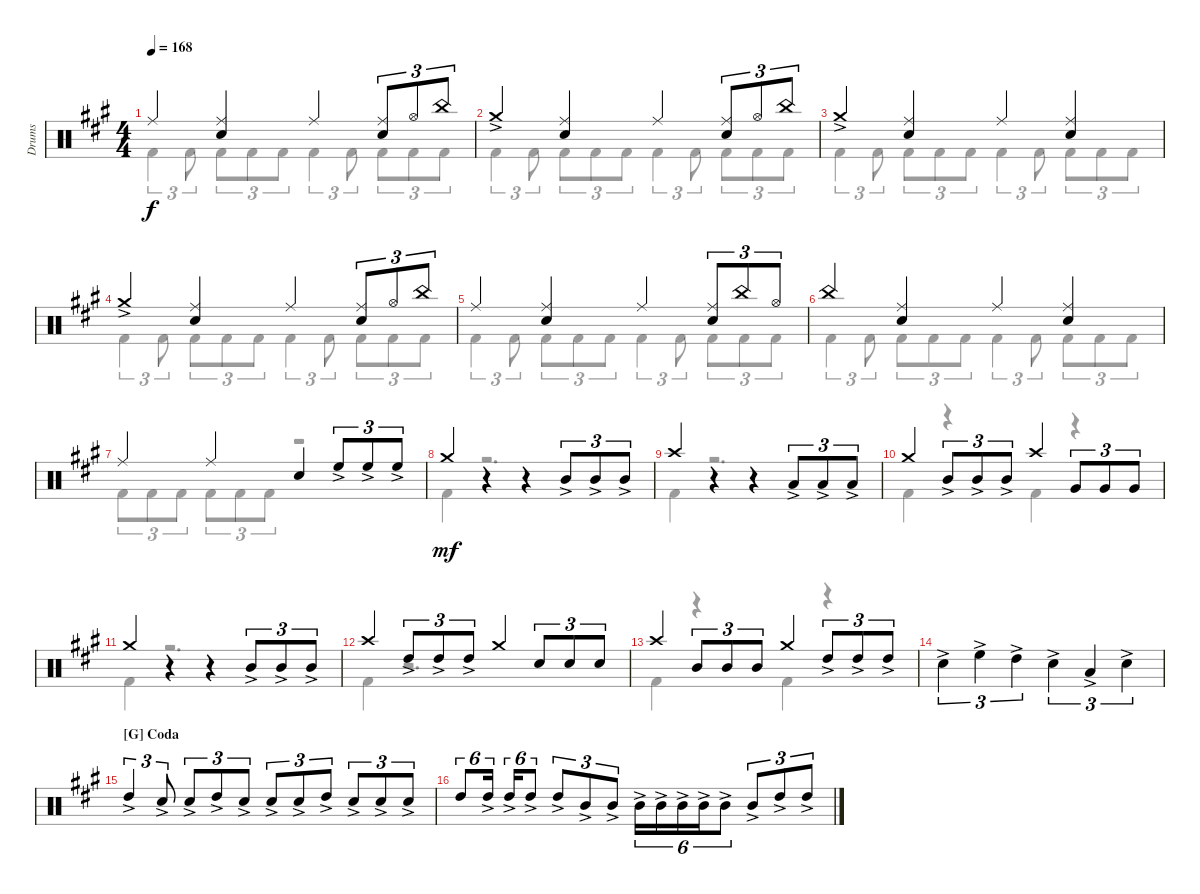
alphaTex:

\defaultSystemsLayout 4
\bracketExtendMode groupsimilarinstruments
\otherSystemsTrackNameOrientation horizontal
\track ("Drums" "Drums") {instrument percussion}
\staff {score}
\articulation defaults
\voice
\ts (4 4)
\tempo 168
\clef neutral
\ks a "Ride (middle)"{acc forcenatural}.4{dy f beam Up}
("Ride (middle)"{acc forcenatural} "Snare (hit) 2"{acc forcenatural}).4{beam Up} "Ride (middle)"{acc forcenatural}.4{beam Up} ("Ride (middle)"{acc forcenatural} "Snare (hit) 2"{acc forcenatural}).8{tu (3 2) beam Up} "Hi-Hat (open)"{acc forcenatural}.8{tu (3 2) beam Up} "China (hit)"{acc forcenatural}.8{tu (3 2) beam Up} |
"Crash medium (hit)"{ac acc forcenatural}.4{beam Up} ("Ride (middle)"{acc forcenatural} "Snare (hit) 2"{acc forcenatural}).4{beam Up} "Ride (middle)"{acc forcenatural}.4{beam Up} ("Ride (middle)"{acc forcenatural} "Snare (hit) 2"{acc forcenatural}).8{tu (3 2) beam Up} "Hi-Hat (open)"{acc forcenatural}.8{tu (3 2) beam Up} "China (hit)"{acc forcenatural}.8{tu (3 2) beam Up} |
"Crash medium (hit)"{ac acc forcenatural}.4{beam Up} ("Ride (middle)"{acc forcenatural} "Snare (hit) 2"{acc forcenatural}).4{beam Up} "Ride (middle)"{acc forcenatural}.4{beam Up} ("Ride (middle)"{acc forcenatural} "Snare (hit) 2"{acc forcenatural}).4{beam Up} |
"Crash medium (hit)"{ac acc forcenatural}.4{beam Up} ("Ride (middle)"{acc forcenatural} "Snare (hit) 2"{acc forcenatural}).4{beam Up} "Ride (middle)"{acc forcenatural}.4{beam Up} ("Ride (middle)"{acc forcenatural} "Snare (hit) 2"{acc forcenatural}).8{tu (3 2) beam Up} "Hi-Hat (open)"{acc forcenatural}.8{tu (3 2) beam Up} "China (hit)"{acc forcenatural}.8{tu (3 2) beam Up} |
"Ride (middle)"{acc forcenatural}.4{beam Up} ("Ride (middle)"{acc forcenatural} "Snare (hit) 2"{acc forcenatural}).4{beam Up} "Ride (middle)"{acc forcenatural}.4{beam Up} ("Ride (middle)"{acc forcenatural} "Snare (hit) 2"{acc forcenatural}).8{tu (3 2) beam Up} "China (hit)"{acc forcenatural}.8{tu (3 2) beam Up} "Hi-Hat (open)"{acc forcenatural}.8{tu (3 2) beam Up} |
"China (hit)"{acc forcenatural}.4{beam Up} ("Ride (middle)"{acc forcenatural} "Snare (hit) 2"{acc forcenatural}).4{beam Up} "Ride (middle)"{acc forcenatural}.4{beam Up} ("Ride (middle)"{acc forcenatural} "Snare (hit) 2"{acc forcenatural}).4{beam Up} |
"Ride (middle)"{acc forcenatural}.4{beam Up} "Ride (middle)"{acc forcenatural}.4{beam Up} "Snare (hit) 2"{acc forcenatural}.4{beam Up} "High Floor Tom (hit)"{ac acc forcenatural}.8{tu (3 2) beam Up} "High Floor Tom (hit)"{ac acc forcenatural}.8{tu (3 2) beam Up} "High Floor Tom (hit)"{ac acc forcenatural}.8{tu (3 2) beam Up} |
"Crash medium (hit)"{acc forcenatural}.4{dy mf beam Up} r.4{beam Up} r.4{beam Up} "Mid Tom (hit)"{ac acc forcenatural}.8{tu (3 2) beam Up} "Mid Tom (hit)"{ac acc forcenatural}.8{tu (3 2) beam Up} "Mid Tom (hit)"{ac acc forcenatural}.8{tu (3 2) beam Up} |
"Crash high (hit)"{acc forcenatural}.4{beam Up} r.4{beam Up} r.4{beam Up} "Low Tom (hit)"{ac acc forcenatural}.8{tu (3 2) beam Up} "Low Tom (hit)"{ac acc forcenatural}.8{tu (3 2) beam Up} "Low Tom (hit)"{ac acc forcenatural}.8{tu (3 2) beam Up} |
"Crash medium (hit)"{acc forcenatural}.4{beam Up} "Mid Tom (hit)"{ac acc forcenatural}.8{tu (3 2) beam Up} "Mid Tom (hit)"{ac acc forcenatural}.8{tu (3 2) beam Up} "Mid Tom (hit)"{ac acc forcenatural}.8{tu (3 2) beam Up} "Crash high (hit)"{acc forcenatural}.4{beam Up} "Very Low Tom (hit)"{acc forcenatural}.8{tu (3 2) beam Up} "Very Low Tom (hit)"{acc forcenatural}.8{tu (3 2) beam Up} "Very Low Tom (hit)"{acc forcenatural}.8{tu (3 2) beam Up} |
"Crash medium (hit)"{acc forcenatural}.4{beam Up} r.4{beam Up} r.4{beam Up} "Mid Tom (hit)"{ac acc forcenatural}.8{tu (3 2) beam Up} "Mid Tom (hit)"{ac acc forcenatural}.8{tu (3 2) beam Up} "Mid Tom (hit)"{ac acc forcenatural}.8{tu (3 2) beam Up} |
"Crash high (hit)"{acc forcenatural}.4{beam Up} "High Tom (hit)"{ac acc forcenatural}.8{tu (3 2) beam Up} "High Tom (hit)"{ac acc forcenatural}.8{tu (3 2) beam Up} "High Tom (hit)"{ac acc forcenatural}.8{tu (3 2) beam Up} "Crash medium (hit)"{acc forcenatural}.4{beam Up} "Snare (hit) 2"{acc forcenatural}.8{tu (3 2) beam Up} "Snare (hit) 2"{acc forcenatural}.8{tu (3 2) beam Up} "Snare (hit) 2"{acc forcenatural}.8{tu (3 2) beam Up} |
"Crash high (hit)"{acc forcenatural}.4{beam Up} "Mid Tom (hit)"{acc forcenatural}.8{tu (3 2) beam Up} "Mid Tom (hit)"{acc forcenatural}.8{tu (3 2) beam Up} "Mid Tom (hit)"{acc forcenatural}.8{tu (3 2) beam Up} "Crash medium (hit)"{acc forcenatural}.4{beam Up} "High Tom (hit)"{ac acc forcenatural}.8{tu (3 2) beam Up} "High Tom (hit)"{ac acc forcenatural}.8{tu (3 2) beam Up} "High Tom (hit)"{ac acc forcenatural}.8{tu (3 2) beam Up} |
"Snare (hit) 2"{ac acc forcenatural}.4{tu (3 2) beam Down} "High Floor Tom (hit)"{ac acc forcenatural}.4{tu (3 2) beam Down} "High Tom (hit)"{ac acc forcenatural}.4{tu (3 2) beam Down} "Snare (hit) 2"{ac acc forcenatural}.4{tu (3 2) beam Down} "Low Tom (hit)"{ac acc forcenatural}.4{tu (3 2) beam Up} "Snare (hit) 2"{ac acc forcenatural}.4{tu (3 2) beam Down} |
\section ("G" "Coda")
"High Tom (hit)"{ac acc forcenatural}.4{tu (3 2) beam Up} "Snare (hit) 2"{ac acc forcenatural}.8{tu (3 2) beam Up} "Snare (hit) 2"{ac acc forcenatural}.8{tu (3 2) beam Up} "High Tom (hit)"{ac acc forcenatural}.8{tu (3 2) beam Up} "Snare (hit) 2"{ac acc forcenatural}.8{tu (3 2) beam Up} "Snare (hit) 2"{ac acc forcenatural}.8{tu (3 2) beam Up} "Snare (hit) 2"{ac acc forcenatural}.8{tu (3 2) beam Up} "High Tom (hit)"{ac acc forcenatural}.8{tu (3 2) beam Up} "Snare (hit) 2"{ac acc forcenatural}.8{tu (3 2) beam Up} "Snare (hit) 2"{ac acc forcenatural}.8{tu (3 2) beam Up} "Snare (hit) 2"{ac acc forcenatural}.8{tu (3 2) beam Up} |
"High Tom (hit)"{acc forcenatural}.8{tu (6 4) beam Up} "High Tom (hit)"{ac acc forcenatural}.16{tu (6 4) beam Up} "High Tom (hit)"{ac acc forcenatural}.16{tu (6 4) beam Up} "High Tom (hit)"{ac acc forcenatural}.8{tu (6 4) beam Up} "High Tom (hit)"{ac acc forcenatural}.8{tu (3 2) beam Up} "Mid Tom (hit)"{ac acc forcenatural}.8{tu (3 2) beam Up} "Mid Tom (hit)"{ac acc forcenatural}.8{tu (3 2) beam Up} "Mid Tom (hit)"{ac acc forcenatural}.16{tu (6 4) beam Down} "Mid Tom (hit)"{ac acc forcenatural}.16{tu (6 4) beam Down} "Mid Tom (hit)"{ac acc forcenatural}.16{tu (6 4) beam Down} "Mid Tom (hit)"{ac acc forcenatural}.16{tu (6 4) beam Down} "Mid Tom (hit)"{ac acc forcenatural}.8{tu (6 4) beam Down} "Mid Tom (hit)"{ac acc forcenatural}.8{tu (3 2) beam Up} "High Tom (hit)"{ac acc forcenatural}.8{tu (3 2) beam Up} "High Tom (hit)"{ac acc forcenatural}.8{tu (3 2) beam Up}
\voice
\clef neutral
\ottava regular
\simile none
\ks a "Kick (hit) 2"{acc forcenatural}.4{tu (3 2) dy f beam Down} "Kick (hit) 2"{acc forcenatural}.8{tu (3 2) beam Down} "Kick (hit) 2"{acc forcenatural}.8{tu (3 2) beam Down} "Kick (hit) 2"{acc forcenatural}.8{tu (3 2) beam Down} "Kick (hit) 2"{acc forcenatural}.8{tu (3 2) beam Down} "Kick (hit) 2"{acc forcenatural}.4{tu (3 2) beam Down} "Kick (hit) 2"{acc forcenatural}.8{tu (3 2) beam Down} "Kick (hit) 2"{acc forcenatural}.8{tu (3 2) beam Down} "Kick (hit) 2"{acc forcenatural}.8{tu (3 2) beam Down} "Kick (hit) 2"{acc forcenatural}.8{tu (3 2) beam Down}
|
"Kick (hit) 2"{acc forcenatural}.4{tu (3 2) beam Down} "Kick (hit) 2"{acc forcenatural}.8{tu (3 2) beam Down} "Kick (hit) 2"{acc forcenatural}.8{tu (3 2) beam Down} "Kick (hit) 2"{acc forcenatural}.8{tu (3 2) beam Down} "Kick (hit) 2"{acc forcenatural}.8{tu (3 2) beam Down} "Kick (hit) 2"{acc forcenatural}.4{tu (3 2) beam Down} "Kick (hit) 2"{acc forcenatural}.8{tu (3 2) beam Down} "Kick (hit) 2"{acc forcenatural}.8{tu (3 2) beam Down} "Kick (hit) 2"{acc forcenatural}.8{tu (3 2) beam Down} "Kick (hit) 2"{acc forcenatural}.8{tu (3 2) beam Down} |
"Kick (hit) 2"{acc forcenatural}.4{tu (3 2) beam Down} "Kick (hit) 2"{acc forcenatural}.8{tu (3 2) beam Down} "Kick (hit) 2"{acc forcenatural}.8{tu (3 2) beam Down} "Kick (hit) 2"{acc forcenatural}.8{tu (3 2) beam Down} "Kick (hit) 2"{acc forcenatural}.8{tu (3 2) beam Down} "Kick (hit) 2"{acc forcenatural}.4{tu (3 2) beam Down} "Kick (hit) 2"{acc forcenatural}.8{tu (3 2) beam Down} "Kick (hit) 2"{acc forcenatural}.8{tu (3 2) beam Down} "Kick (hit) 2"{acc forcenatural}.8{tu (3 2) beam Down} "Kick (hit) 2"{acc forcenatural}.8{tu (3 2) beam Down} |
"Kick (hit) 2"{acc forcenatural}.4{tu (3 2) beam Down} "Kick (hit) 2"{acc forcenatural}.8{tu (3 2) beam Down} "Kick (hit) 2"{acc forcenatural}.8{tu (3 2) beam Down} "Kick (hit) 2"{acc forcenatural}.8{tu (3 2) beam Down} "Kick (hit) 2"{acc forcenatural}.8{tu (3 2) beam Down} "Kick (hit) 2"{acc forcenatural}.4{tu (3 2) beam Down} "Kick (hit) 2"{acc forcenatural}.8{tu (3 2) beam Down} "Kick (hit) 2"{acc forcenatural}.8{tu (3 2) beam Down} "Kick (hit) 2"{acc forcenatural}.8{tu (3 2) beam Down} "Kick (hit) 2"{acc forcenatural}.8{tu (3 2) beam Down} |
"Kick (hit) 2"{acc forcenatural}.4{tu (3 2) beam Down} "Kick (hit) 2"{acc forcenatural}.8{tu (3 2) beam Down} "Kick (hit) 2"{acc forcenatural}.8{tu (3 2) beam Down} "Kick (hit) 2"{acc forcenatural}.8{tu (3 2) beam Down} "Kick (hit) 2"{acc forcenatural}.8{tu (3 2) beam Down} "Kick (hit) 2"{acc forcenatural}.4{tu (3 2) beam Down} "Kick (hit) 2"{acc forcenatural}.8{tu (3 2) beam Down} "Kick (hit) 2"{acc forcenatural}.8{tu (3 2) beam Down} "Kick (hit) 2"{acc forcenatural}.8{tu (3 2) beam Down} "Kick (hit) 2"{acc forcenatural}.8{tu (3 2) beam Down} |
"Kick (hit) 2"{acc forcenatural}.4{tu (3 2) beam Down} "Kick (hit) 2"{acc forcenatural}.8{tu (3 2) beam Down} "Kick (hit) 2"{acc forcenatural}.8{tu (3 2) beam Down} "Kick (hit) 2"{acc forcenatural}.8{tu (3 2) beam Down} "Kick (hit) 2"{acc forcenatural}.8{tu (3 2) beam Down} "Kick (hit) 2"{acc forcenatural}.4{tu (3 2) beam Down} "Kick (hit) 2"{acc forcenatural}.8{tu (3 2) beam Down} "Kick (hit) 2"{acc forcenatural}.8{tu (3 2) beam Down} "Kick (hit) 2"{acc forcenatural}.8{tu (3 2) beam Down} "Kick (hit) 2"{acc forcenatural}.8{tu (3 2) beam Down} |
"Kick (hit) 2"{acc forcenatural}.8{tu (3 2) beam Down} "Kick (hit) 2"{acc forcenatural}.8{tu (3 2) beam Down} "Kick (hit) 2"{acc forcenatural}.8{tu (3 2) beam Down} "Kick (hit) 2"{acc forcenatural}.8{tu (3 2) beam Down} "Kick (hit) 2"{acc forcenatural}.8{tu (3 2) beam Down} "Kick (hit) 2"{acc forcenatural}.8{tu (3 2) beam Down} r.2{beam Down} |
"Kick (hit) 2"{acc forcenatural}.4{dy mf beam Down} r.2{d beam Down} |
"Kick (hit) 2"{acc forcenatural}.4{beam Down} r.2{d beam Down} |
"Kick (hit) 2"{acc forcenatural}.4{beam Down} r.4{beam Down} "Kick (hit) 2"{acc forcenatural}.4{beam Down} r.4{beam Down} |
"Kick (hit) 2"{acc forcenatural}.4{beam Down} r.2{d beam Down} |
"Kick (hit) 2"{acc forcenatural}.4{beam Down} r.2{d beam Down} |
"Kick (hit) 2"{acc forcenatural}.4{beam Down} r.4{beam Down} "Kick (hit) 2"{acc forcenatural}.4{beam Down} r.4{beam Down} |
|
|
